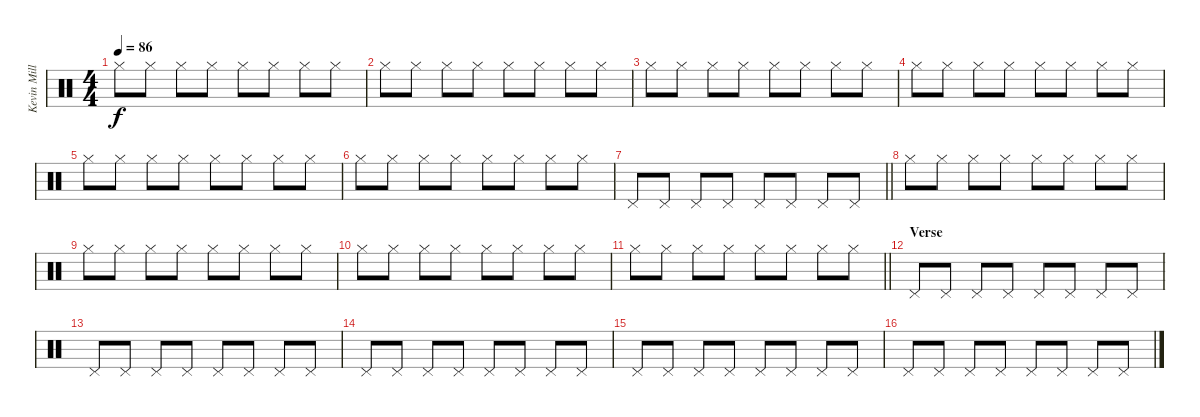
\track ("Kevin Miller (Drums)" "Kevin Mill") {instrument percussion}
\staff {score}
\articulation defaults
\ts (4 4)
\tempo 86
\clef neutral
\ks c "Hi-Hat (closed)".8{dy f} "Hi-Hat (closed)".8 "Hi-Hat (closed)".8 "Hi-Hat (closed)".8 "Hi-Hat (closed)".8 "Hi-Hat (closed)".8 "Hi-Hat (closed)".8 "Hi-Hat (closed)".8
|
"Hi-Hat (closed)".8 "Hi-Hat (closed)".8 "Hi-Hat (closed)".8 "Hi-Hat (closed)".8 "Hi-Hat (closed)".8 "Hi-Hat (closed)".8 "Hi-Hat (closed)".8 "Hi-Hat (closed)".8 |
"Hi-Hat (closed)".8 "Hi-Hat (closed)".8 "Hi-Hat (closed)".8 "Hi-Hat (closed)".8 "Hi-Hat (closed)".8 "Hi-Hat (closed)".8 "Hi-Hat (closed)".8 "Hi-Hat (closed)".8 |
"Hi-Hat (closed)".8 "Hi-Hat (closed)".8 "Hi-Hat (closed)".8 "Hi-Hat (closed)".8 "Hi-Hat (closed)".8 "Hi-Hat (closed)".8 "Hi-Hat (closed)".8 "Hi-Hat (closed)".8 |
"Hi-Hat (closed)".8 "Hi-Hat (closed)".8 "Hi-Hat (closed)".8 "Hi-Hat (closed)".8 "Hi-Hat (closed)".8 "Hi-Hat (closed)".8 "Hi-Hat (closed)".8 "Hi-Hat (closed)".8 |
"Hi-Hat (closed)".8 "Hi-Hat (closed)".8 "Hi-Hat (closed)".8 "Hi-Hat (closed)".8 "Hi-Hat (closed)".8 "Hi-Hat (closed)".8 "Hi-Hat (closed)".8 "Hi-Hat (closed)".8 |
\barLineRight lightlight "Pedal Hi-Hat (hit)".8 "Pedal Hi-Hat (hit)".8 "Pedal Hi-Hat (hit)".8 "Pedal Hi-Hat (hit)".8 "Pedal Hi-Hat (hit)".8 "Pedal Hi-Hat (hit)".8 "Pedal Hi-Hat (hit)".8 "Pedal Hi-Hat (hit)".8
|
"Hi-Hat (closed)".8 "Hi-Hat (closed)".8 "Hi-Hat (closed)".8 "Hi-Hat (closed)".8 "Hi-Hat (closed)".8 "Hi-Hat (closed)".8 "Hi-Hat (closed)".8 "Hi-Hat (closed)".8 |
"Hi-Hat (closed)".8 "Hi-Hat (closed)".8 "Hi-Hat (closed)".8 "Hi-Hat (closed)".8 "Hi-Hat (closed)".8 "Hi-Hat (closed)".8 "Hi-Hat (closed)".8 "Hi-Hat (closed)".8 |
"Hi-Hat (closed)".8 "Hi-Hat (closed)".8 "Hi-Hat (closed)".8 "Hi-Hat (closed)".8 "Hi-Hat (closed)".8 "Hi-Hat (closed)".8 "Hi-Hat (closed)".8 "Hi-Hat (closed)".8 |
\barLineRight lightlight "Hi-Hat (closed)".8 "Hi-Hat (closed)".8 "Hi-Hat (closed)".8 "Hi-Hat (closed)".8 "Hi-Hat (closed)".8 "Hi-Hat (closed)".8 "Hi-Hat (closed)".8 "Hi-Hat (closed)".8
|
\section ("" "Verse")
"Pedal Hi-Hat (hit)".8 "Pedal Hi-Hat (hit)".8 "Pedal Hi-Hat (hit)".8 "Pedal Hi-Hat (hit)".8 "Pedal Hi-Hat (hit)".8 "Pedal Hi-Hat (hit)".8 "Pedal Hi-Hat (hit)".8 "Pedal Hi-Hat (hit)".8 |
"Pedal Hi-Hat (hit)".8 "Pedal Hi-Hat (hit)".8 "Pedal Hi-Hat (hit)".8 "Pedal Hi-Hat (hit)".8 "Pedal Hi-Hat (hit)".8 "Pedal Hi-Hat (hit)".8 "Pedal Hi-Hat (hit)".8 "Pedal Hi-Hat (hit)".8 |
"Pedal Hi-Hat (hit)".8 "Pedal Hi-Hat (hit)".8 "Pedal Hi-Hat (hit)".8 "Pedal Hi-Hat (hit)".8 "Pedal Hi-Hat (hit)".8 "Pedal Hi-Hat (hit)".8 "Pedal Hi-Hat (hit)".8 "Pedal Hi-Hat (hit)".8 |
"Pedal Hi-Hat (hit)".8 "Pedal Hi-Hat (hit)".8 "Pedal Hi-Hat (hit)".8 "Pedal Hi-Hat (hit)".8 "Pedal Hi-Hat (hit)".8 "Pedal Hi-Hat (hit)".8 "Pedal Hi-Hat (hit)".8 "Pedal Hi-Hat (hit)".8 |
"Pedal Hi-Hat (hit)".8 "Pedal Hi-Hat (hit)".8 "Pedal Hi-Hat (hit)".8 "Pedal Hi-Hat (hit)".8 "Pedal Hi-Hat (hit)".8 "Pedal Hi-Hat (hit)".8 "Pedal Hi-Hat (hit)".8 "Pedal Hi-Hat (hit)".8
